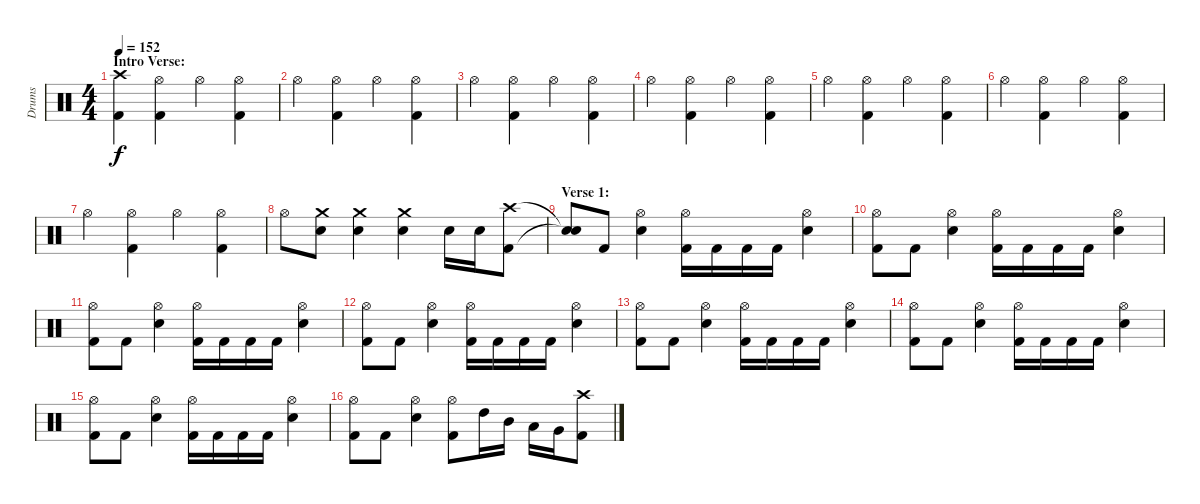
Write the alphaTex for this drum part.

\track ("Drums" "Drums") {instrument percussion}
\staff {score}
\articulation defaults
\ts (4 4)
\section ("" "Intro Verse:")
\tempo 152
\clef neutral
\ks c
("Crash high (hit)" "Kick (hit) 2").4{dy f} ("Hi-Hat (open)" "Kick (hit) 2").4 "Hi-Hat (open)".4 ("Hi-Hat (open)" "Kick (hit) 2").4 |
"Hi-Hat (open)".4 ("Hi-Hat (open)" "Kick (hit) 2").4 "Hi-Hat (open)".4 ("Hi-Hat (open)" "Kick (hit) 2").4 |
"Hi-Hat (open)".4 ("Hi-Hat (open)" "Kick (hit) 2").4 "Hi-Hat (open)".4 ("Hi-Hat (open)" "Kick (hit) 2").4 |
"Hi-Hat (open)".4 ("Hi-Hat (open)" "Kick (hit) 2").4 "Hi-Hat (open)".4 ("Hi-Hat (open)" "Kick (hit) 2").4 |
"Hi-Hat (open)".4 ("Hi-Hat (open)" "Kick (hit) 2").4 "Hi-Hat (open)".4 ("Hi-Hat (open)" "Kick (hit) 2").4 |
"Hi-Hat (open)".4 ("Hi-Hat (open)" "Kick (hit) 2").4 "Hi-Hat (open)".4 ("Hi-Hat (open)" "Kick (hit) 2").4 |
"Hi-Hat (open)".4 ("Hi-Hat (open)" "Kick (hit) 2").4 "Hi-Hat (open)".4 ("Hi-Hat (open)" "Kick (hit) 2").4 |
"Hi-Hat (open)".8 ("Crash medium (hit)" "Electric Snare (hit)").8 ("Crash medium (hit)" "Electric Snare (hit)").4 ("Crash medium (hit)" "Electric Snare (hit)").4 "Electric Snare (hit)".16 "Electric Snare (hit)".16 ("Crash high (hit)" "Kick (hit) 2").8 |
\section ("" "Verse 1:")
("Snare (hit)"{t} "Snare (hit)"{t}).8 "Kick (hit) 2".8 ("Hi-Hat (open)" "Electric Snare (hit)").4 ("Hi-Hat (open)" "Kick (hit) 2").16 "Kick (hit) 2".16 "Kick (hit) 2".16 "Kick (hit) 2".16 ("Hi-Hat (open)" "Electric Snare (hit)").4 |
("Hi-Hat (open)" "Kick (hit) 2").8 "Kick (hit) 2".8 ("Hi-Hat (open)" "Electric Snare (hit)").4 ("Hi-Hat (open)" "Kick (hit) 2").16 "Kick (hit) 2".16 "Kick (hit) 2".16 "Kick (hit) 2".16 ("Hi-Hat (open)" "Electric Snare (hit)").4 |
("Hi-Hat (open)" "Kick (hit) 2").8 "Kick (hit) 2".8 ("Hi-Hat (open)" "Electric Snare (hit)").4 ("Hi-Hat (open)" "Kick (hit) 2").16 "Kick (hit) 2".16 "Kick (hit) 2".16 "Kick (hit) 2".16 ("Hi-Hat (open)" "Electric Snare (hit)").4 |
("Hi-Hat (open)" "Kick (hit) 2").8 "Kick (hit) 2".8 ("Hi-Hat (open)" "Electric Snare (hit)").4 ("Hi-Hat (open)" "Kick (hit) 2").16 "Kick (hit) 2".16 "Kick (hit) 2".16 "Kick (hit) 2".16 ("Hi-Hat (open)" "Electric Snare (hit)").4 |
("Hi-Hat (open)" "Kick (hit) 2").8 "Kick (hit) 2".8 ("Hi-Hat (open)" "Electric Snare (hit)").4 ("Hi-Hat (open)" "Kick (hit) 2").16 "Kick (hit) 2".16 "Kick (hit) 2".16 "Kick (hit) 2".16 ("Hi-Hat (open)" "Electric Snare (hit)").4 |
("Hi-Hat (open)" "Kick (hit) 2").8 "Kick (hit) 2".8 ("Hi-Hat (open)" "Electric Snare (hit)").4 ("Hi-Hat (open)" "Kick (hit) 2").16 "Kick (hit) 2".16 "Kick (hit) 2".16 "Kick (hit) 2".16 ("Hi-Hat (open)" "Electric Snare (hit)").4 |
("Hi-Hat (open)" "Kick (hit) 2").8 "Kick (hit) 2".8 ("Hi-Hat (open)" "Electric Snare (hit)").4 ("Hi-Hat (open)" "Kick (hit) 2").16 "Kick (hit) 2".16 "Kick (hit) 2".16 "Kick (hit) 2".16 ("Hi-Hat (open)" "Electric Snare (hit)").4 |
("Hi-Hat (open)" "Kick (hit) 2").8 "Kick (hit) 2".8 ("Hi-Hat (open)" "Electric Snare (hit)").4 ("Hi-Hat (open)" "Kick (hit) 2").8 "High Tom (hit)".16 "Mid Tom (hit)".16 "Low Tom (hit)".16 "Very Low Tom (hit)".16 ("Crash high (hit)" "Kick (hit) 2").8
